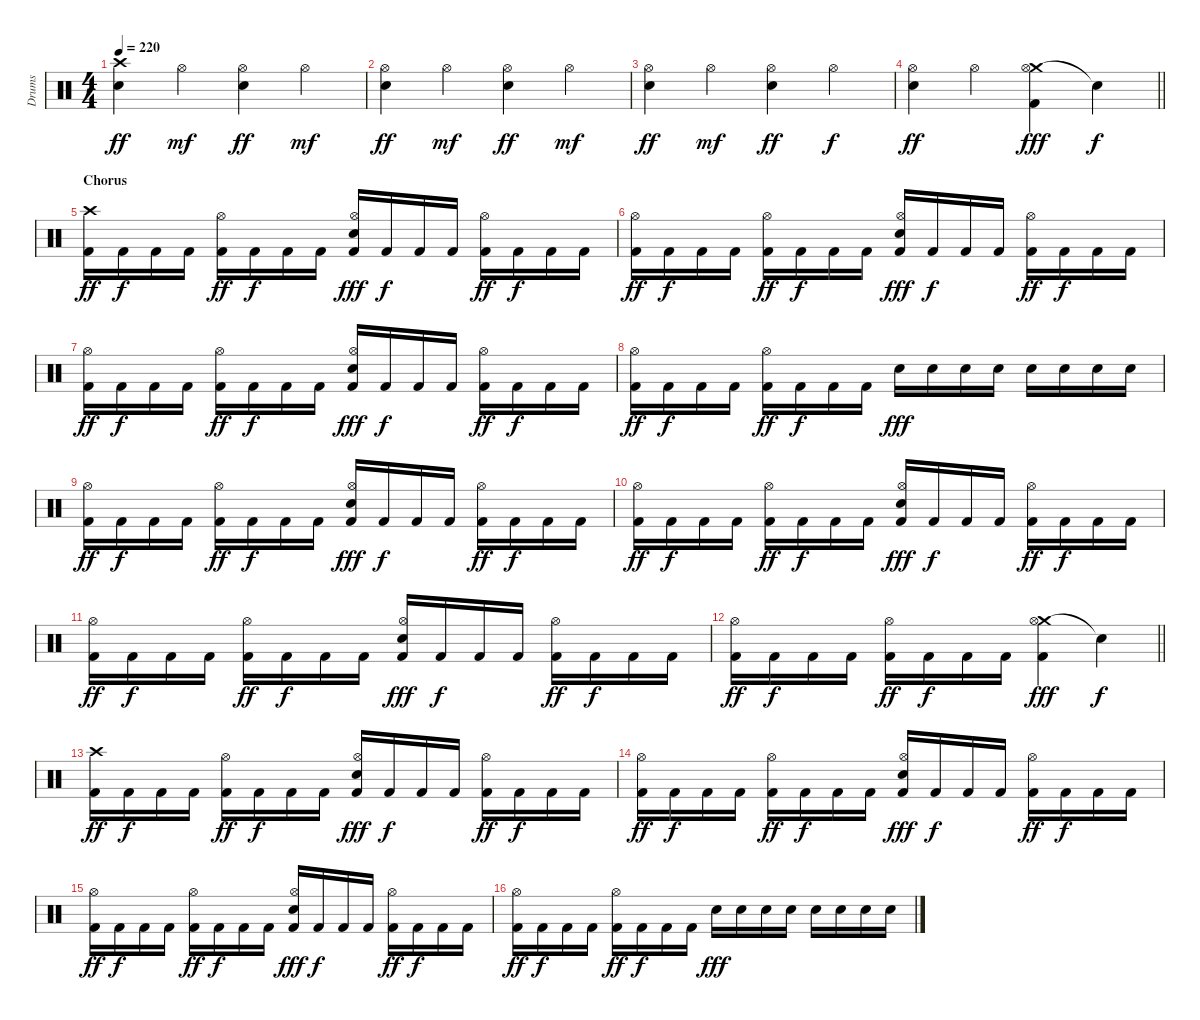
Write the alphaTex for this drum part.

\track ("Drums" "Drums") {instrument percussion}
\staff {score}
\articulation defaults
\ts (4 4)
\tempo 220
\clef neutral
\ks c
("Crash high (hit)" "Snare (hit) 2").4{dy ff} "Hi-Hat (open)".4{dy mf} ("Hi-Hat (open)" "Snare (hit) 2").4{dy ff} "Hi-Hat (open)".4{dy mf} |
("Hi-Hat (open)" "Snare (hit) 2").4{dy ff} "Hi-Hat (open)".4{dy mf} ("Hi-Hat (open)" "Snare (hit) 2").4{dy ff} "Hi-Hat (open)".4{dy mf} |
("Hi-Hat (open)" "Snare (hit) 2").4{dy ff} "Hi-Hat (open)".4{dy mf} ("Hi-Hat (open)" "Snare (hit) 2").4{dy ff} "Hi-Hat (open)".4{dy f} |
\barLineRight lightlight
("Hi-Hat (open)" "Snare (hit) 2").4{dy ff} "Hi-Hat (open)".4 ("Crash medium (hit)" "Hi-Hat (open)" "Kick (hit) 2").4{dy fff} "Snare (hit)"{t}.4{dy f} |
\section ("" "Chorus")
("Crash high (hit)" "Kick (hit) 2").16{dy ff} "Kick (hit) 2".16{dy f} "Kick (hit) 2".16 "Kick (hit) 2".16 ("Hi-Hat (open)" "Kick (hit) 2").16{dy ff} "Kick (hit) 2".16{dy f} "Kick (hit) 2".16 "Kick (hit) 2".16 ("Hi-Hat (open)" "Snare (hit) 2" "Kick (hit) 2").16{dy fff} "Kick (hit) 2".16{dy f} "Kick (hit) 2".16 "Kick (hit) 2".16 ("Hi-Hat (open)" "Kick (hit) 2").16{dy ff} "Kick (hit) 2".16{dy f} "Kick (hit) 2".16 "Kick (hit) 2".16 |
("Hi-Hat (open)" "Kick (hit) 2").16{dy ff} "Kick (hit) 2".16{dy f} "Kick (hit) 2".16 "Kick (hit) 2".16 ("Hi-Hat (open)" "Kick (hit) 2").16{dy ff} "Kick (hit) 2".16{dy f} "Kick (hit) 2".16 "Kick (hit) 2".16 ("Hi-Hat (open)" "Snare (hit) 2" "Kick (hit) 2").16{dy fff} "Kick (hit) 2".16{dy f} "Kick (hit) 2".16 "Kick (hit) 2".16 ("Hi-Hat (open)" "Kick (hit) 2").16{dy ff} "Kick (hit) 2".16{dy f} "Kick (hit) 2".16 "Kick (hit) 2".16 |
("Hi-Hat (open)" "Kick (hit) 2").16{dy ff} "Kick (hit) 2".16{dy f} "Kick (hit) 2".16 "Kick (hit) 2".16 ("Hi-Hat (open)" "Kick (hit) 2").16{dy ff} "Kick (hit) 2".16{dy f} "Kick (hit) 2".16 "Kick (hit) 2".16 ("Hi-Hat (open)" "Snare (hit) 2" "Kick (hit) 2").16{dy fff} "Kick (hit) 2".16{dy f} "Kick (hit) 2".16 "Kick (hit) 2".16 ("Hi-Hat (open)" "Kick (hit) 2").16{dy ff} "Kick (hit) 2".16{dy f} "Kick (hit) 2".16 "Kick (hit) 2".16 |
("Hi-Hat (open)" "Kick (hit) 2").16{dy ff} "Kick (hit) 2".16{dy f} "Kick (hit) 2".16 "Kick (hit) 2".16 ("Hi-Hat (open)" "Kick (hit) 2").16{dy ff} "Kick (hit) 2".16{dy f} "Kick (hit) 2".16 "Kick (hit) 2".16 "Snare (hit) 2".16{dy fff} "Snare (hit) 2".16 "Snare (hit) 2".16 "Snare (hit) 2".16 "Snare (hit) 2".16 "Snare (hit) 2".16 "Snare (hit) 2".16 "Snare (hit) 2".16 |
("Hi-Hat (open)" "Kick (hit) 2").16{dy ff} "Kick (hit) 2".16{dy f} "Kick (hit) 2".16 "Kick (hit) 2".16 ("Hi-Hat (open)" "Kick (hit) 2").16{dy ff} "Kick (hit) 2".16{dy f} "Kick (hit) 2".16 "Kick (hit) 2".16 ("Hi-Hat (open)" "Snare (hit) 2" "Kick (hit) 2").16{dy fff} "Kick (hit) 2".16{dy f} "Kick (hit) 2".16 "Kick (hit) 2".16 ("Hi-Hat (open)" "Kick (hit) 2").16{dy ff} "Kick (hit) 2".16{dy f} "Kick (hit) 2".16 "Kick (hit) 2".16 |
("Hi-Hat (open)" "Kick (hit) 2").16{dy ff} "Kick (hit) 2".16{dy f} "Kick (hit) 2".16 "Kick (hit) 2".16 ("Hi-Hat (open)" "Kick (hit) 2").16{dy ff} "Kick (hit) 2".16{dy f} "Kick (hit) 2".16 "Kick (hit) 2".16 ("Hi-Hat (open)" "Snare (hit) 2" "Kick (hit) 2").16{dy fff} "Kick (hit) 2".16{dy f} "Kick (hit) 2".16 "Kick (hit) 2".16 ("Hi-Hat (open)" "Kick (hit) 2").16{dy ff} "Kick (hit) 2".16{dy f} "Kick (hit) 2".16 "Kick (hit) 2".16 |
("Hi-Hat (open)" "Kick (hit) 2").16{dy ff} "Kick (hit) 2".16{dy f} "Kick (hit) 2".16 "Kick (hit) 2".16 ("Hi-Hat (open)" "Kick (hit) 2").16{dy ff} "Kick (hit) 2".16{dy f} "Kick (hit) 2".16 "Kick (hit) 2".16 ("Hi-Hat (open)" "Snare (hit) 2" "Kick (hit) 2").16{dy fff} "Kick (hit) 2".16{dy f} "Kick (hit) 2".16 "Kick (hit) 2".16 ("Hi-Hat (open)" "Kick (hit) 2").16{dy ff} "Kick (hit) 2".16{dy f} "Kick (hit) 2".16 "Kick (hit) 2".16 |
\barLineRight lightlight
("Hi-Hat (open)" "Kick (hit) 2").16{dy ff} "Kick (hit) 2".16{dy f} "Kick (hit) 2".16 "Kick (hit) 2".16 ("Hi-Hat (open)" "Kick (hit) 2").16{dy ff} "Kick (hit) 2".16{dy f} "Kick (hit) 2".16 "Kick (hit) 2".16 ("Crash medium (hit)" "Hi-Hat (open)" "Kick (hit) 2").4{dy fff} "Snare (hit)"{t}.4{dy f} |
("Crash high (hit)" "Kick (hit) 2").16{dy ff} "Kick (hit) 2".16{dy f} "Kick (hit) 2".16 "Kick (hit) 2".16 ("Hi-Hat (open)" "Kick (hit) 2").16{dy ff} "Kick (hit) 2".16{dy f} "Kick (hit) 2".16 "Kick (hit) 2".16 ("Hi-Hat (open)" "Snare (hit) 2" "Kick (hit) 2").16{dy fff} "Kick (hit) 2".16{dy f} "Kick (hit) 2".16 "Kick (hit) 2".16 ("Hi-Hat (open)" "Kick (hit) 2").16{dy ff} "Kick (hit) 2".16{dy f} "Kick (hit) 2".16 "Kick (hit) 2".16 |
("Hi-Hat (open)" "Kick (hit) 2").16{dy ff} "Kick (hit) 2".16{dy f} "Kick (hit) 2".16 "Kick (hit) 2".16 ("Hi-Hat (open)" "Kick (hit) 2").16{dy ff} "Kick (hit) 2".16{dy f} "Kick (hit) 2".16 "Kick (hit) 2".16 ("Hi-Hat (open)" "Snare (hit) 2" "Kick (hit) 2").16{dy fff} "Kick (hit) 2".16{dy f} "Kick (hit) 2".16 "Kick (hit) 2".16 ("Hi-Hat (open)" "Kick (hit) 2").16{dy ff} "Kick (hit) 2".16{dy f} "Kick (hit) 2".16 "Kick (hit) 2".16 |
("Hi-Hat (open)" "Kick (hit) 2").16{dy ff} "Kick (hit) 2".16{dy f} "Kick (hit) 2".16 "Kick (hit) 2".16 ("Hi-Hat (open)" "Kick (hit) 2").16{dy ff} "Kick (hit) 2".16{dy f} "Kick (hit) 2".16 "Kick (hit) 2".16 ("Hi-Hat (open)" "Snare (hit) 2" "Kick (hit) 2").16{dy fff} "Kick (hit) 2".16{dy f} "Kick (hit) 2".16 "Kick (hit) 2".16 ("Hi-Hat (open)" "Kick (hit) 2").16{dy ff} "Kick (hit) 2".16{dy f} "Kick (hit) 2".16 "Kick (hit) 2".16 |
("Hi-Hat (open)" "Kick (hit) 2").16{dy ff} "Kick (hit) 2".16{dy f} "Kick (hit) 2".16 "Kick (hit) 2".16 ("Hi-Hat (open)" "Kick (hit) 2").16{dy ff} "Kick (hit) 2".16{dy f} "Kick (hit) 2".16 "Kick (hit) 2".16 "Snare (hit) 2".16{dy fff} "Snare (hit) 2".16 "Snare (hit) 2".16 "Snare (hit) 2".16 "Snare (hit) 2".16 "Snare (hit) 2".16 "Snare (hit) 2".16 "Snare (hit) 2".16
